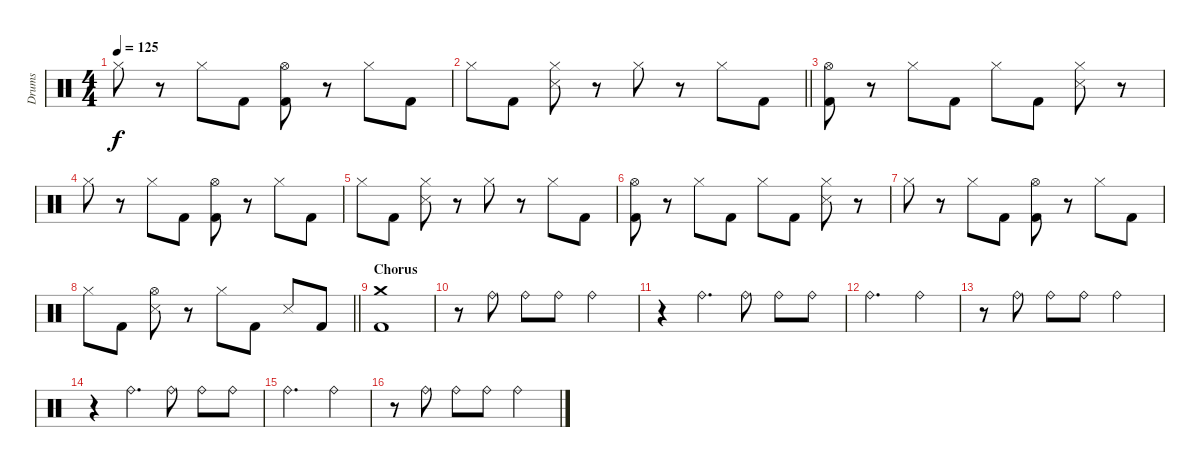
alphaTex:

\track ("Drums" "Drums") {instrument percussion}
\staff {score}
\articulation defaults
\ts (4 4)
\tempo 125
\clef neutral
\ks c "Hi-Hat (closed)".8{dy f}
r.8 "Hi-Hat (closed)".8 "Kick (hit) 2".8 ("Hi-Hat (open)" "Kick (hit) 2").8 r.8 "Hi-Hat (closed)".8 "Kick (hit) 2".8 |
\barLineRight lightlight "Hi-Hat (closed)".8 "Kick (hit) 2".8
("Hi-Hat (closed)" "Snare (side stick) 3").8 r.8 "Hi-Hat (closed)".8 r.8 "Hi-Hat (closed)".8 "Kick (hit) 2".8 |
("Hi-Hat (open)" "Kick (hit) 2").8 r.8 "Hi-Hat (closed)".8 "Kick (hit) 2".8 "Hi-Hat (closed)".8 "Kick (hit) 2".8 ("Hi-Hat (closed)" "Snare (side stick) 3").8 r.8 |
"Hi-Hat (closed)".8 r.8 "Hi-Hat (closed)".8 "Kick (hit) 2".8 ("Hi-Hat (open)" "Kick (hit) 2").8 r.8 "Hi-Hat (closed)".8 "Kick (hit) 2".8 |
"Hi-Hat (closed)".8 "Kick (hit) 2".8 ("Hi-Hat (closed)" "Snare (side stick) 3").8 r.8 "Hi-Hat (closed)".8 r.8 "Hi-Hat (closed)".8 "Kick (hit) 2".8 |
("Hi-Hat (open)" "Kick (hit) 2").8 r.8 "Hi-Hat (closed)".8 "Kick (hit) 2".8 "Hi-Hat (closed)".8 "Kick (hit) 2".8 ("Hi-Hat (closed)" "Snare (side stick) 3").8 r.8 |
"Hi-Hat (closed)".8 r.8 "Hi-Hat (closed)".8 "Kick (hit) 2".8 ("Hi-Hat (open)" "Kick (hit) 2").8 r.8 "Hi-Hat (closed)".8 "Kick (hit) 2".8 |
\barLineRight lightlight "Hi-Hat (closed)".8 "Kick (hit) 2".8
("Hi-Hat (open)" "Snare (side stick) 3").8 r.8 "Hi-Hat (closed)".8 "Kick (hit) 2".8 "Snare (side stick) 3".8 "Kick (hit) 2".8 |
\section ("" "Chorus")
("Crash medium (hit)" "Kick (hit) 2").1 |
r.8{volume 10} "Ride (bell)".8 "Ride (bell)".8 "Ride (bell)".8 "Ride (bell)".2 |
r.4 "Ride (bell)".4{d} "Ride (bell)".8 "Ride (bell)".8 "Ride (bell)".8 |
"Ride (bell)".2{d} "Ride (bell)".4 |
r.8 "Ride (bell)".8 "Ride (bell)".8 "Ride (bell)".8 "Ride (bell)".2 |
r.4 "Ride (bell)".4{d} "Ride (bell)".8 "Ride (bell)".8 "Ride (bell)".8 |
"Ride (bell)".2{d} "Ride (bell)".4 |
r.8 "Ride (bell)".8 "Ride (bell)".8 "Ride (bell)".8 "Ride (bell)".2
